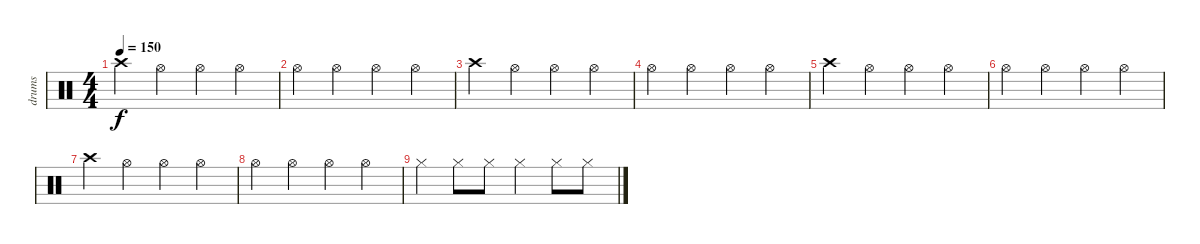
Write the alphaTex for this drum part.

\track ("drums" "drums") {instrument percussion}
\staff {score}
\articulation defaults
\ts (4 4)
\tempo 150
\clef neutral
\ks c "Crash high (hit)".4{dy f} "Hi-Hat (open)".4 "Hi-Hat (open)".4 "Hi-Hat (open)".4
|
"Hi-Hat (open)".4 "Hi-Hat (open)".4 "Hi-Hat (open)".4 "Hi-Hat (open)".4 |
"Crash high (hit)".4 "Hi-Hat (open)".4 "Hi-Hat (open)".4 "Hi-Hat (open)".4 |
"Hi-Hat (open)".4 "Hi-Hat (open)".4 "Hi-Hat (open)".4 "Hi-Hat (open)".4 |
"Crash high (hit)".4 "Hi-Hat (open)".4 "Hi-Hat (open)".4 "Hi-Hat (open)".4 |
"Hi-Hat (open)".4 "Hi-Hat (open)".4 "Hi-Hat (open)".4 "Hi-Hat (open)".4 |
"Crash high (hit)".4 "Hi-Hat (open)".4 "Hi-Hat (open)".4 "Hi-Hat (open)".4 |
"Hi-Hat (open)".4 "Hi-Hat (open)".4 "Hi-Hat (open)".4 "Hi-Hat (open)".4 |
"Hi-Hat (closed)".4 "Hi-Hat (closed)".8 "Hi-Hat (closed)".8 "Hi-Hat (closed)".4 "Hi-Hat (closed)".8 "Hi-Hat (closed)".8
